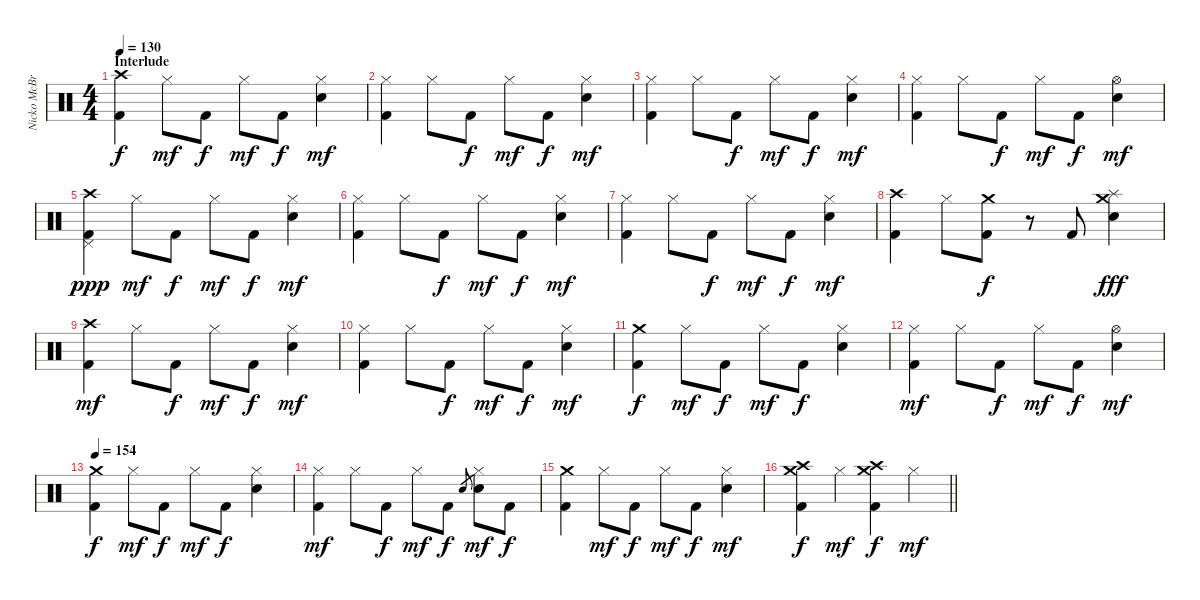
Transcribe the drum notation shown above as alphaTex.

\track ("Nicko McBrain" "Nicko McBr") {instrument percussion}
\staff {score}
\articulation defaults
\ts (4 4)
\section ("" "Interlude")
\tempo 130
\clef neutral
\ks c
("Crash high (hit)" "Kick (hit) 2").4{dy f} "Hi-Hat (closed)".8{dy mf} "Kick (hit) 2".8{dy f} "Hi-Hat (closed)".8{dy mf} "Kick (hit) 2".8{dy f} ("Hi-Hat (closed)" "Electric Snare (hit)").4{dy mf} |
("Hi-Hat (closed)" "Kick (hit) 2").4 "Hi-Hat (closed)".8 "Kick (hit) 2".8{dy f} "Hi-Hat (closed)".8{dy mf} "Kick (hit) 2".8{dy f} ("Hi-Hat (closed)" "Electric Snare (hit)").4{dy mf} |
("Hi-Hat (closed)" "Kick (hit) 2").4 "Hi-Hat (closed)".8 "Kick (hit) 2".8{dy f} "Hi-Hat (closed)".8{dy mf} "Kick (hit) 2".8{dy f} ("Hi-Hat (closed)" "Electric Snare (hit)").4{dy mf} |
("Hi-Hat (closed)" "Kick (hit) 2").4 "Hi-Hat (closed)".8 "Kick (hit) 2".8{dy f} "Hi-Hat (closed)".8{dy mf} "Kick (hit) 2".8{dy f} ("Hi-Hat (open)" "Electric Snare (hit)").4{dy mf} |
("Crash high (hit)" "Kick (hit) 2" "Pedal Hi-Hat (hit)").4{dy ppp} "Hi-Hat (closed)".8{dy mf} "Kick (hit) 2".8{dy f} "Hi-Hat (closed)".8{dy mf} "Kick (hit) 2".8{dy f} ("Hi-Hat (closed)" "Electric Snare (hit)").4{dy mf} |
("Hi-Hat (closed)" "Kick (hit) 2").4 "Hi-Hat (closed)".8 "Kick (hit) 2".8{dy f} "Hi-Hat (closed)".8{dy mf} "Kick (hit) 2".8{dy f} ("Hi-Hat (closed)" "Electric Snare (hit)").4{dy mf} |
("Hi-Hat (closed)" "Kick (hit) 2").4 "Hi-Hat (closed)".8 "Kick (hit) 2".8{dy f} "Hi-Hat (closed)".8{dy mf} "Kick (hit) 2".8{dy f} ("Hi-Hat (closed)" "Electric Snare (hit)").4{dy mf} |
("Crash high (hit)" "Kick (hit) 2").4 "Hi-Hat (closed)".8 ("Crash medium (hit)" "Kick (hit) 2").8{dy f} r.8 "Kick (hit) 2".8 ("Crash medium (hit)" "Electric Snare (hit)" "Splash (hit)").4{dy fff} |
("Crash high (hit)" "Kick (hit) 2").4{dy mf} "Hi-Hat (closed)".8 "Kick (hit) 2".8{dy f} "Hi-Hat (closed)".8{dy mf} "Kick (hit) 2".8{dy f} ("Hi-Hat (closed)" "Electric Snare (hit)").4{dy mf} |
("Hi-Hat (closed)" "Kick (hit) 2").4 "Hi-Hat (closed)".8 "Kick (hit) 2".8{dy f} "Hi-Hat (closed)".8{dy mf} "Kick (hit) 2".8{dy f} ("Hi-Hat (closed)" "Electric Snare (hit)").4{dy mf} |
("Crash medium (hit)" "Kick (hit) 2").4{dy f} "Hi-Hat (closed)".8{dy mf} "Kick (hit) 2".8{dy f} "Hi-Hat (closed)".8{dy mf} "Kick (hit) 2".8{dy f} ("Hi-Hat (closed)" "Electric Snare (hit)").4 |
("Hi-Hat (closed)" "Kick (hit) 2").4{dy mf} "Hi-Hat (closed)".8 "Kick (hit) 2".8{dy f} "Hi-Hat (closed)".8{dy mf} "Kick (hit) 2".8{dy f} ("Hi-Hat (open)" "Electric Snare (hit)").4{dy mf} |
\tempo 154
("Crash medium (hit)" "Kick (hit) 2").4{dy f} "Hi-Hat (closed)".8{dy mf} "Kick (hit) 2".8{dy f} "Hi-Hat (closed)".8{dy mf} "Kick (hit) 2".8{dy f} ("Hi-Hat (closed)" "Electric Snare (hit)").4 |
("Hi-Hat (closed)" "Kick (hit) 2").4{dy mf} "Hi-Hat (closed)".8 "Kick (hit) 2".8{dy f} "Hi-Hat (closed)".8{dy mf} "Kick (hit) 2".8{dy f} "Snare (hit) 2".8{gr} ("Hi-Hat (closed)" "Electric Snare (hit)").8{dy mf} "Kick (hit) 2".8{dy f} |
("Crash medium (hit)" "Kick (hit) 2").4 "Hi-Hat (closed)".8{dy mf} "Kick (hit) 2".8{dy f} "Hi-Hat (closed)".8{dy mf} "Kick (hit) 2".8{dy f} ("Hi-Hat (closed)" "Electric Snare (hit)").4{dy mf} |
\barLineRight lightlight
("Crash high (hit)" "Kick (hit) 2" "Crash medium (hit)").4{dy f} "Hi-Hat (closed)".4{dy mf} ("Crash medium (hit)" "Kick (hit) 2" "Crash high (hit)").4{dy f} "Hi-Hat (closed)".4{dy mf}
